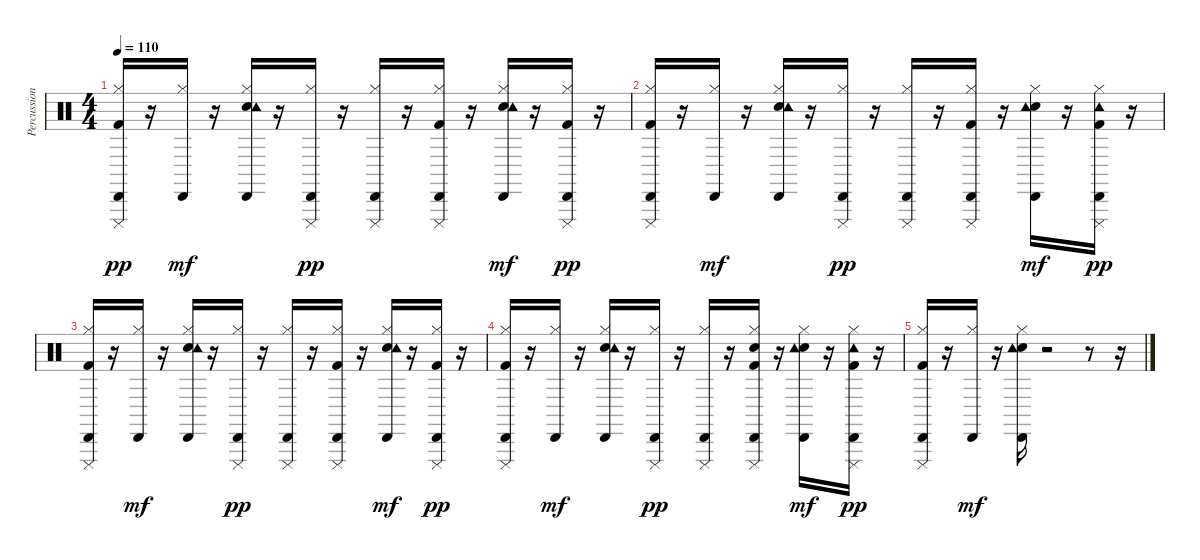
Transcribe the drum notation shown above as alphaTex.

\track ("Percussion" "Percussion") {instrument percussion}
\staff {score}
\articulation defaults
\ts (4 4)
\tempo 110
\clef neutral
\ks c
("Kick (hit) 2" "Hi-Hat (closed)" "Cabasa (hit)" "Cuica (mute)").16{dy pp} r.16 ("Hi-Hat (closed)" "Cabasa (hit)").16{dy mf} r.16 ("Electric Snare (hit)" "Hi-Hat (closed)" "Tambourine (hit)" "Cabasa (hit)").16 r.16 ("Hi-Hat (closed)" "Cabasa (hit)" "Cuica (mute)").16{dy pp} r.16 ("Hi-Hat (closed)" "Cabasa (hit)" "Cuica (mute)").16 r.16 ("Kick (hit) 2" "Hi-Hat (closed)" "Cabasa (hit)" "Cuica (mute)").16 r.16 ("Electric Snare (hit)" "Hi-Hat (closed)" "Tambourine (hit)" "Cabasa (hit)").16{dy mf} r.16 ("Kick (hit) 2" "Hi-Hat (closed)" "Cabasa (hit)" "Cuica (mute)").16{dy pp} r.16 |
("Kick (hit) 2" "Hi-Hat (closed)" "Cabasa (hit)" "Cuica (mute)").16 r.16 ("Hi-Hat (closed)" "Cabasa (hit)").16{dy mf} r.16 ("Electric Snare (hit)" "Hi-Hat (closed)" "Tambourine (hit)" "Cabasa (hit)").16 r.16 ("Hi-Hat (closed)" "Cabasa (hit)" "Cuica (mute)").16{dy pp} r.16 ("Hi-Hat (closed)" "Cabasa (hit)" "Cuica (mute)").16 r.16 ("Kick (hit) 2" "Hi-Hat (closed)" "Cabasa (hit)" "Cuica (mute)").16 r.16 ("Electric Snare (hit)" "Hi-Hat (closed)" "Tambourine (hit)" "Cabasa (hit)").16{dy mf} r.16 ("Kick (hit) 2" "Hi-Hat (closed)" "Tambourine (hit)" "Cabasa (hit)" "Cuica (mute)").16{dy pp} r.16 |
("Kick (hit) 2" "Hi-Hat (closed)" "Cabasa (hit)" "Cuica (mute)").16 r.16 ("Hi-Hat (closed)" "Cabasa (hit)").16{dy mf} r.16 ("Electric Snare (hit)" "Hi-Hat (closed)" "Tambourine (hit)" "Cabasa (hit)").16 r.16 ("Hi-Hat (closed)" "Cabasa (hit)" "Cuica (mute)").16{dy pp} r.16 ("Hi-Hat (closed)" "Cabasa (hit)" "Cuica (mute)").16 r.16 ("Kick (hit) 2" "Hi-Hat (closed)" "Cabasa (hit)" "Cuica (mute)").16 r.16 ("Electric Snare (hit)" "Hi-Hat (closed)" "Tambourine (hit)" "Cabasa (hit)").16{dy mf} r.16 ("Kick (hit) 2" "Hi-Hat (closed)" "Cabasa (hit)" "Cuica (mute)").16{dy pp} r.16 |
("Kick (hit) 2" "Hi-Hat (closed)" "Cabasa (hit)" "Cuica (mute)").16 r.16 ("Hi-Hat (closed)" "Cabasa (hit)").16{dy mf} r.16 ("Electric Snare (hit)" "Hi-Hat (closed)" "Tambourine (hit)" "Cabasa (hit)").16 r.16 ("Hi-Hat (closed)" "Cabasa (hit)" "Cuica (mute)").16{dy pp} r.16 ("Hi-Hat (closed)" "Cabasa (hit)" "Cuica (mute)").16 r.16 ("Kick (hit) 2" "Electric Snare (hit)" "Hi-Hat (closed)" "Cabasa (hit)" "Cuica (mute)").16 r.16 ("Electric Snare (hit)" "Hi-Hat (closed)" "Tambourine (hit)" "Cabasa (hit)").16{dy mf} r.16 ("Kick (hit) 2" "Hi-Hat (closed)" "Tambourine (hit)" "Cabasa (hit)" "Cuica (mute)").16{dy pp} r.16 |
("Kick (hit) 2" "Hi-Hat (closed)" "Cabasa (hit)" "Cuica (mute)").16 r.16 ("Hi-Hat (closed)" "Cabasa (hit)").16{dy mf} r.16 ("Electric Snare (hit)" "Hi-Hat (closed)" "Tambourine (hit)" "Cabasa (hit)").16 r.2 r.8 r.16
